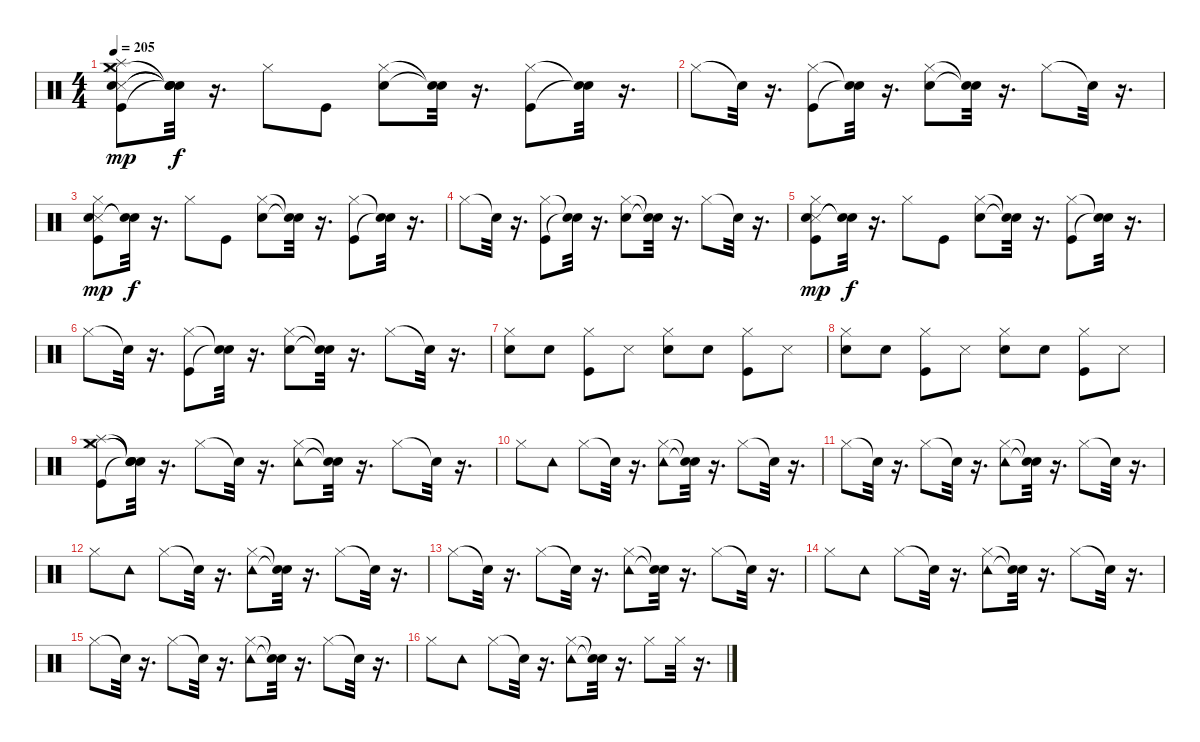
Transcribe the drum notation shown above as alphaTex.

\track "" {instrument percussion}
\staff {score}
\articulation defaults
\ts (4 4)
\tempo 205
\clef neutral
\ks c
("Metronome (hit)" "Snare (hit) 2" "Kick (hit)" "Hi-Hat (closed)" "Splash (hit)" "Crash medium (hit)").8{dy mp} ("Snare (hit)"{t} "Snare (hit)"{t} "Snare (hit)"{t} "Snare (hit)"{t}).32{dy f} r.16{d} "Hi-Hat (closed)".8 "Kick (hit)".8 ("Hi-Hat (closed)" "Electric Snare (hit)").8 ("Snare (hit)"{t} "Snare (hit)"{t}).32 r.16{d} ("Hi-Hat (closed)" "Kick (hit)").8 ("Snare (hit)"{t} "Snare (hit)"{t}).32 r.16{d} |
"Hi-Hat (closed)".8 "Snare (hit)"{t}.32 r.16{d} ("Hi-Hat (closed)" "Kick (hit)").8 ("Snare (hit)"{t} "Snare (hit)"{t}).32 r.16{d} ("Hi-Hat (closed)" "Electric Snare (hit)").8 ("Snare (hit)"{t} "Snare (hit)"{t}).32 r.16{d} "Hi-Hat (closed)".8 "Snare (hit)"{t}.32 r.16{d} |
("Metronome (hit)" "Snare (hit) 2" "Kick (hit)" "Hi-Hat (closed)").8{dy mp} ("Snare (hit)"{t} "Snare (hit)"{t}).32{dy f} r.16{d} "Hi-Hat (closed)".8 "Kick (hit)".8 ("Hi-Hat (closed)" "Electric Snare (hit)").8 ("Snare (hit)"{t} "Snare (hit)"{t}).32 r.16{d} ("Hi-Hat (closed)" "Kick (hit)").8 ("Snare (hit)"{t} "Snare (hit)"{t}).32 r.16{d} |
"Hi-Hat (closed)".8 "Snare (hit)"{t}.32 r.16{d} ("Hi-Hat (closed)" "Kick (hit)").8 ("Snare (hit)"{t} "Snare (hit)"{t}).32 r.16{d} ("Hi-Hat (closed)" "Electric Snare (hit)").8 ("Snare (hit)"{t} "Snare (hit)"{t}).32 r.16{d} "Hi-Hat (closed)".8 "Snare (hit)"{t}.32 r.16{d} |
("Metronome (hit)" "Snare (hit) 2" "Kick (hit)" "Hi-Hat (closed)").8{dy mp} ("Snare (hit)"{t} "Snare (hit)"{t}).32{dy f} r.16{d} "Hi-Hat (closed)".8 "Kick (hit)".8 ("Hi-Hat (closed)" "Electric Snare (hit)").8 ("Snare (hit)"{t} "Snare (hit)"{t}).32 r.16{d} ("Hi-Hat (closed)" "Kick (hit)").8 ("Snare (hit)"{t} "Snare (hit)"{t}).32 r.16{d} |
"Hi-Hat (closed)".8 "Snare (hit)"{t}.32 r.16{d} ("Hi-Hat (closed)" "Kick (hit)").8 ("Snare (hit)"{t} "Snare (hit)"{t}).32 r.16{d} ("Hi-Hat (closed)" "Electric Snare (hit)").8 ("Snare (hit)"{t} "Snare (hit)"{t}).32 r.16{d} "Hi-Hat (closed)".8 "Snare (hit)"{t}.32 r.16{d} |
("Snare (hit) 2" "Hi-Hat (closed)").8 "Electric Snare (hit)".8 ("Kick (hit)" "Hi-Hat (closed)").8 "Metronome (hit)".8 ("Snare (hit) 2" "Hi-Hat (closed)").8 "Electric Snare (hit)".8 ("Kick (hit)" "Hi-Hat (closed)").8 "Metronome (hit)".8 |
("Snare (hit) 2" "Hi-Hat (closed)").8 "Electric Snare (hit)".8 ("Kick (hit)" "Hi-Hat (closed)").8 "Metronome (hit)".8 ("Snare (hit) 2" "Hi-Hat (closed)").8 "Electric Snare (hit)".8 ("Hi-Hat (closed)" "Kick (hit)").8 "Metronome (hit)".8 |
("Kick (hit)" "Crash medium (hit)" "Hi-Hat (closed)" "Splash (hit)").8 ("Snare (hit)"{t} "Snare (hit)"{t} "Snare (hit)"{t} "Snare (hit)"{t}).32 r.16{d} "Hi-Hat (closed)".8 "Snare (hit)"{t}.32 r.16{d} ("Tambourine (hit)" "Hi-Hat (closed)").8 ("Snare (hit)"{t} "Snare (hit)"{t}).32 r.16{d} "Hi-Hat (closed)".8 "Snare (hit)"{t}.32 r.16{d} |
"Hi-Hat (closed)".8 "Tambourine (hit)".8 "Hi-Hat (closed)".8 "Snare (hit)"{t}.32 r.16{d} ("Hi-Hat (closed)" "Tambourine (hit)").8 ("Snare (hit)"{t} "Snare (hit)"{t}).32 r.16{d} "Hi-Hat (closed)".8 "Snare (hit)"{t}.32 r.16{d} |
"Hi-Hat (closed)".8 "Snare (hit)"{t}.32 r.16{d} "Hi-Hat (closed)".8 "Snare (hit)"{t}.32 r.16{d} ("Tambourine (hit)" "Hi-Hat (closed)").8 ("Snare (hit)"{t} "Snare (hit)"{t}).32 r.16{d} "Hi-Hat (closed)".8 "Snare (hit)"{t}.32 r.16{d} |
"Hi-Hat (closed)".8 "Tambourine (hit)".8 "Hi-Hat (closed)".8 "Snare (hit)"{t}.32 r.16{d} ("Hi-Hat (closed)" "Tambourine (hit)").8 ("Snare (hit)"{t} "Snare (hit)"{t}).32 r.16{d} "Hi-Hat (closed)".8 "Snare (hit)"{t}.32 r.16{d} |
"Hi-Hat (closed)".8 "Snare (hit)"{t}.32 r.16{d} "Hi-Hat (closed)".8 "Snare (hit)"{t}.32 r.16{d} ("Tambourine (hit)" "Hi-Hat (closed)").8 ("Snare (hit)"{t} "Snare (hit)"{t}).32 r.16{d} "Hi-Hat (closed)".8 "Snare (hit)"{t}.32 r.16{d} |
"Hi-Hat (closed)".8 "Tambourine (hit)".8 "Hi-Hat (closed)".8 "Snare (hit)"{t}.32 r.16{d} ("Hi-Hat (closed)" "Tambourine (hit)").8 ("Snare (hit)"{t} "Snare (hit)"{t}).32 r.16{d} "Hi-Hat (closed)".8 "Snare (hit)"{t}.32 r.16{d} |
"Hi-Hat (closed)".8 "Snare (hit)"{t}.32 r.16{d} "Hi-Hat (closed)".8 "Snare (hit)"{t}.32 r.16{d} ("Tambourine (hit)" "Hi-Hat (closed)").8 ("Snare (hit)"{t} "Snare (hit)"{t}).32 r.16{d} "Hi-Hat (closed)".8 "Snare (hit)"{t}.32 r.16{d} |
"Hi-Hat (closed)".8 "Tambourine (hit)".8 "Hi-Hat (closed)".8 "Snare (hit)"{t}.32 r.16{d} ("Hi-Hat (closed)" "Tambourine (hit)").8 ("Snare (hit)"{t} "Snare (hit)"{t}).32 r.16{d} "Hi-Hat (closed)".8 "Hi-Hat (closed)".32 r.16{d}
